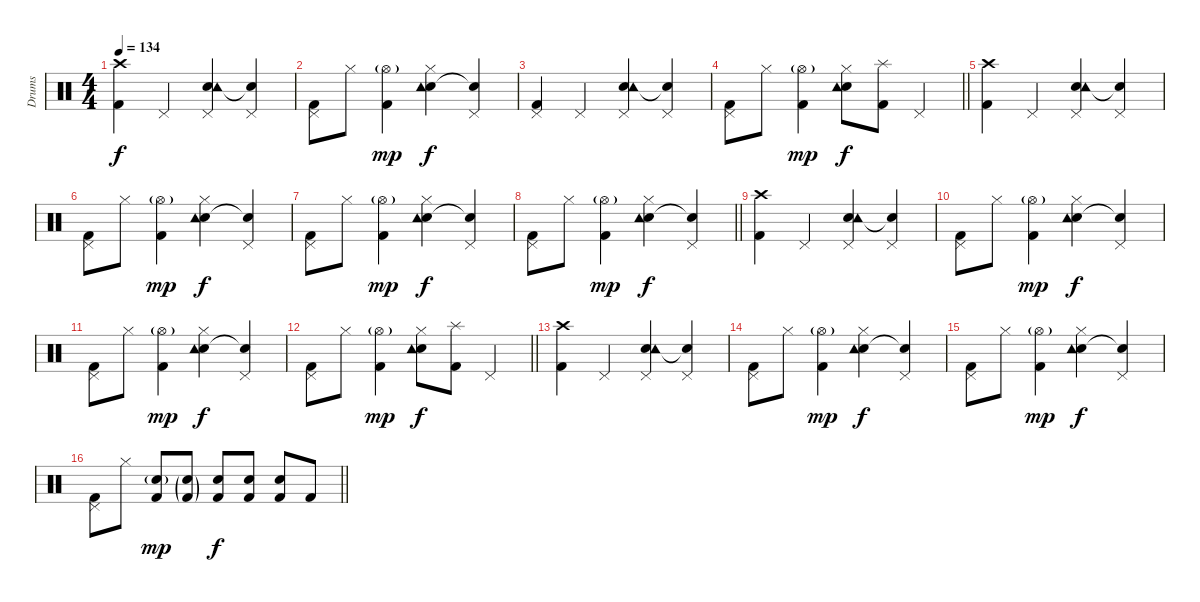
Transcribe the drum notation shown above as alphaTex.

\track ("Drums" "Drums") {instrument percussion}
\staff {score}
\articulation defaults
\ts (4 4)
\tempo 134
\clef neutral
\ks c
("Crash high (hit)" "Kick (hit) 2").4{dy f} "Pedal Hi-Hat (hit)".4 ("Pedal Hi-Hat (hit)" "Electric Snare (hit)" "Tambourine (hit)").4 ("Pedal Hi-Hat (hit)" "Snare (hit)"{t}).4 |
("Pedal Hi-Hat (hit)" "Kick (hit) 2").8 "Hi-Hat (closed)".8 ("Hi-Hat (open)"{g} "Kick (hit) 2").4{dy mp} ("Hi-Hat (closed)" "Electric Snare (hit)" "Tambourine (hit)").4{dy f} ("Pedal Hi-Hat (hit)" "Snare (hit)"{t}).4 |
("Pedal Hi-Hat (hit)" "Kick (hit) 2").4 "Pedal Hi-Hat (hit)".4 ("Pedal Hi-Hat (hit)" "Electric Snare (hit)" "Tambourine (hit)").4 ("Pedal Hi-Hat (hit)" "Snare (hit)"{t}).4 |
\barLineRight lightlight
("Pedal Hi-Hat (hit)" "Kick (hit) 2").8 "Hi-Hat (closed)".8 ("Hi-Hat (open)"{g} "Kick (hit) 2").4{dy mp} ("Hi-Hat (closed)" "Electric Snare (hit)" "Tambourine (hit)").8{dy f} ("Splash (hit)" "Kick (hit) 2").8 "Pedal Hi-Hat (hit)".4 |
("Crash high (hit)" "Kick (hit) 2").4 "Pedal Hi-Hat (hit)".4 ("Pedal Hi-Hat (hit)" "Electric Snare (hit)" "Tambourine (hit)").4 ("Pedal Hi-Hat (hit)" "Snare (hit)"{t}).4 |
("Pedal Hi-Hat (hit)" "Kick (hit) 2").8 "Hi-Hat (closed)".8 ("Hi-Hat (open)"{g} "Kick (hit) 2").4{dy mp} ("Hi-Hat (closed)" "Electric Snare (hit)" "Tambourine (hit)").4{dy f} ("Pedal Hi-Hat (hit)" "Snare (hit)"{t}).4 |
("Pedal Hi-Hat (hit)" "Kick (hit) 2").8 "Hi-Hat (closed)".8 ("Hi-Hat (open)"{g} "Kick (hit) 2").4{dy mp} ("Hi-Hat (closed)" "Electric Snare (hit)" "Tambourine (hit)").4{dy f} ("Pedal Hi-Hat (hit)" "Snare (hit)"{t}).4 |
\barLineRight lightlight
("Pedal Hi-Hat (hit)" "Kick (hit) 2").8 "Hi-Hat (closed)".8 ("Hi-Hat (open)"{g} "Kick (hit) 2").4{dy mp} ("Hi-Hat (closed)" "Electric Snare (hit)" "Tambourine (hit)").4{dy f} ("Pedal Hi-Hat (hit)" "Snare (hit)"{t}).4 |
("Crash high (hit)" "Kick (hit) 2").4 "Pedal Hi-Hat (hit)".4 ("Pedal Hi-Hat (hit)" "Electric Snare (hit)" "Tambourine (hit)").4 ("Pedal Hi-Hat (hit)" "Snare (hit)"{t}).4 |
("Pedal Hi-Hat (hit)" "Kick (hit) 2").8 "Hi-Hat (closed)".8 ("Hi-Hat (open)"{g} "Kick (hit) 2").4{dy mp} ("Hi-Hat (closed)" "Electric Snare (hit)" "Tambourine (hit)").4{dy f} ("Pedal Hi-Hat (hit)" "Snare (hit)"{t}).4 |
("Pedal Hi-Hat (hit)" "Kick (hit) 2").8 "Hi-Hat (closed)".8 ("Hi-Hat (open)"{g} "Kick (hit) 2").4{dy mp} ("Hi-Hat (closed)" "Electric Snare (hit)" "Tambourine (hit)").4{dy f} ("Pedal Hi-Hat (hit)" "Snare (hit)"{t}).4 |
\barLineRight lightlight
("Pedal Hi-Hat (hit)" "Kick (hit) 2").8 "Hi-Hat (closed)".8 ("Hi-Hat (open)"{g} "Kick (hit) 2").4{dy mp} ("Hi-Hat (closed)" "Electric Snare (hit)" "Tambourine (hit)").8{dy f} ("Splash (hit)" "Kick (hit) 2").8 "Pedal Hi-Hat (hit)".4 |
("Crash high (hit)" "Kick (hit) 2").4 "Pedal Hi-Hat (hit)".4 ("Pedal Hi-Hat (hit)" "Electric Snare (hit)" "Tambourine (hit)").4 ("Pedal Hi-Hat (hit)" "Snare (hit)"{t}).4 |
("Pedal Hi-Hat (hit)" "Kick (hit) 2").8 "Hi-Hat (closed)".8 ("Hi-Hat (open)"{g} "Kick (hit) 2").4{dy mp} ("Hi-Hat (closed)" "Electric Snare (hit)" "Tambourine (hit)").4{dy f} ("Pedal Hi-Hat (hit)" "Snare (hit)"{t}).4 |
("Pedal Hi-Hat (hit)" "Kick (hit) 2").8 "Hi-Hat (closed)".8 ("Hi-Hat (open)"{g} "Kick (hit) 2").4{dy mp} ("Hi-Hat (closed)" "Electric Snare (hit)" "Tambourine (hit)").4{dy f} ("Pedal Hi-Hat (hit)" "Snare (hit)"{t}).4 |
\barLineRight lightlight
("Pedal Hi-Hat (hit)" "Kick (hit) 2").8 "Hi-Hat (closed)".8 ("Electric Snare (hit)"{g} "Kick (hit) 2").8{dy mp} ("Electric Snare (hit)"{g} "Kick (hit) 2"{g}).8 ("Electric Snare (hit)" "Kick (hit) 2").8{dy f volume 12} ("Electric Snare (hit)" "Kick (hit) 2").8 ("Electric Snare (hit)" "Kick (hit) 2").8 "Kick (hit) 2".8
